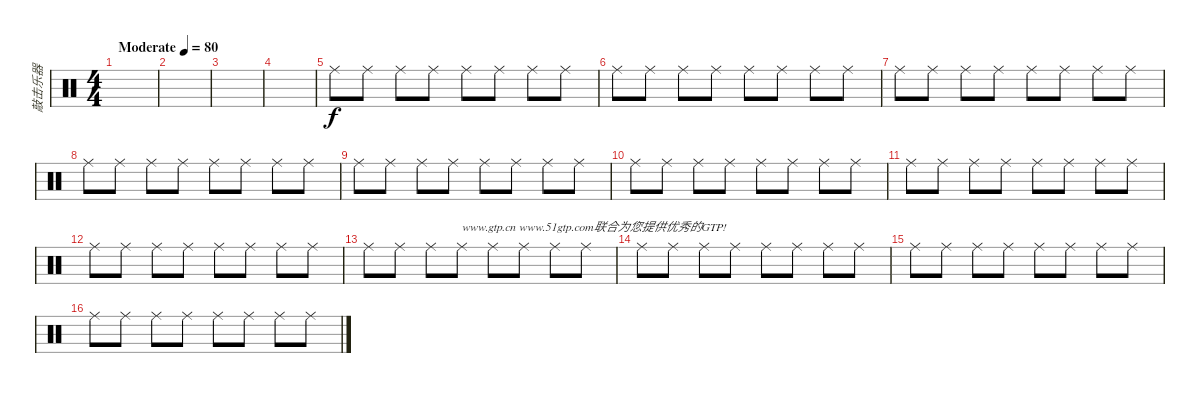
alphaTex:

\track ("敲击乐器" "敲击乐器") {instrument percussion}
\staff {score}
\articulation defaults
\ts (4 4)
\tempo (80 "Moderate")
\clef neutral
\ks c
|
|
|
|
"Ride (middle)".8 "Ride (middle)".8 "Ride (middle)".8 "Ride (middle)".8 "Ride (middle)".8 "Ride (middle)".8 "Ride (middle)".8 "Ride (middle)".8 |
"Ride (middle)".8 "Ride (middle)".8 "Ride (middle)".8 "Ride (middle)".8 "Ride (middle)".8 "Ride (middle)".8 "Ride (middle)".8 "Ride (middle)".8 |
"Ride (middle)".8 "Ride (middle)".8 "Ride (middle)".8 "Ride (middle)".8 "Ride (middle)".8 "Ride (middle)".8 "Ride (middle)".8 "Ride (middle)".8 |
"Ride (middle)".8 "Ride (middle)".8 "Ride (middle)".8 "Ride (middle)".8 "Ride (middle)".8 "Ride (middle)".8 "Ride (middle)".8 "Ride (middle)".8 |
"Ride (middle)".8 "Ride (middle)".8 "Ride (middle)".8 "Ride (middle)".8 "Ride (middle)".8 "Ride (middle)".8 "Ride (middle)".8 "Ride (middle)".8 |
"Ride (middle)".8 "Ride (middle)".8 "Ride (middle)".8 "Ride (middle)".8 "Ride (middle)".8 "Ride (middle)".8 "Ride (middle)".8 "Ride (middle)".8 |
"Ride (middle)".8 "Ride (middle)".8 "Ride (middle)".8 "Ride (middle)".8 "Ride (middle)".8 "Ride (middle)".8 "Ride (middle)".8 "Ride (middle)".8 |
"Ride (middle)".8 "Ride (middle)".8 "Ride (middle)".8 "Ride (middle)".8 "Ride (middle)".8 "Ride (middle)".8 "Ride (middle)".8 "Ride (middle)".8 |
"Ride (middle)".8 "Ride (middle)".8 "Ride (middle)".8 "Ride (middle)".8{txt "www.gtp.cn www.51gtp.com联合为您提供优秀的GTP!"} "Ride (middle)".8 "Ride (middle)".8 "Ride (middle)".8 "Ride (middle)".8 |
"Ride (middle)".8 "Ride (middle)".8 "Ride (middle)".8 "Ride (middle)".8 "Ride (middle)".8 "Ride (middle)".8 "Ride (middle)".8 "Ride (middle)".8 |
"Ride (middle)".8 "Ride (middle)".8 "Ride (middle)".8 "Ride (middle)".8 "Ride (middle)".8 "Ride (middle)".8 "Ride (middle)".8 "Ride (middle)".8 |
"Ride (middle)".8 "Ride (middle)".8 "Ride (middle)".8 "Ride (middle)".8 "Ride (middle)".8 "Ride (middle)".8 "Ride (middle)".8 "Ride (middle)".8
